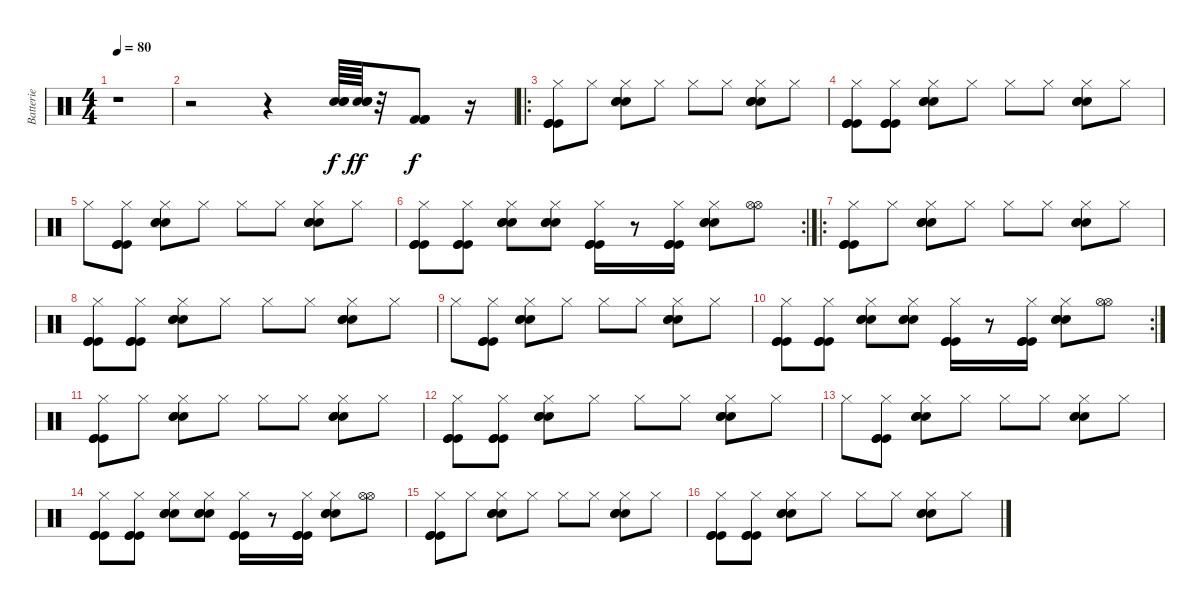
\track ("Batterie" "Batterie") {instrument percussion}
\staff {score}
\articulation defaults
\ts (4 4)
\tempo 80
\clef neutral
\ks c
r.1{dy f} |
r.2 r.4 ("Snare (hit) 2" "Snare (hit) 2" "Snare (hit) 2").64 ("Snare (hit) 2" "Snare (hit) 2" "Snare (hit) 2").64{dy ff} r.32 ("Kick (hit) 2" "Kick (hit) 2" "Kick (hit) 2").8{dy f} r.16 |
\ro
("Hi-Hat (closed)" "Kick (hit)" "Kick (hit)" "Kick (hit)").8 "Hi-Hat (closed)".8 ("Hi-Hat (closed)" "Snare (hit) 2" "Snare (hit) 2" "Snare (hit) 2").8 "Hi-Hat (closed)".8 "Hi-Hat (closed)".8 "Hi-Hat (closed)".8 ("Hi-Hat (closed)" "Snare (hit) 2" "Snare (hit) 2" "Snare (hit) 2").8 "Hi-Hat (closed)".8 |
("Hi-Hat (closed)" "Kick (hit)" "Kick (hit)" "Kick (hit)").8 ("Hi-Hat (closed)" "Kick (hit)" "Kick (hit)" "Kick (hit)").8 ("Hi-Hat (closed)" "Snare (hit) 2" "Snare (hit) 2" "Snare (hit) 2").8 "Hi-Hat (closed)".8 "Hi-Hat (closed)".8 "Hi-Hat (closed)".8 ("Hi-Hat (closed)" "Snare (hit) 2" "Snare (hit) 2" "Snare (hit) 2").8 "Hi-Hat (closed)".8 |
"Hi-Hat (closed)".8 ("Hi-Hat (closed)" "Kick (hit)" "Kick (hit)" "Kick (hit)").8 ("Hi-Hat (closed)" "Snare (hit) 2" "Snare (hit) 2" "Snare (hit) 2").8 "Hi-Hat (closed)".8 "Hi-Hat (closed)".8 "Hi-Hat (closed)".8 ("Hi-Hat (closed)" "Snare (hit) 2" "Snare (hit) 2" "Snare (hit) 2").8 "Hi-Hat (closed)".8 |
\rc 2
("Hi-Hat (closed)" "Kick (hit)" "Kick (hit)" "Kick (hit)").8 ("Hi-Hat (closed)" "Kick (hit)" "Kick (hit)" "Kick (hit)").8 ("Hi-Hat (closed)" "Snare (hit) 2" "Snare (hit) 2" "Snare (hit) 2").8 ("Hi-Hat (closed)" "Snare (hit) 2" "Snare (hit) 2" "Snare (hit) 2").8 ("Hi-Hat (closed)" "Kick (hit)" "Kick (hit)" "Kick (hit)").16 r.8 ("Hi-Hat (closed)" "Kick (hit)" "Kick (hit)" "Kick (hit)").16 ("Hi-Hat (closed)" "Snare (hit) 2" "Snare (hit) 2" "Snare (hit) 2").8 ("Hi-Hat (open)" "Hi-Hat (open)").8 |
\ro
("Hi-Hat (closed)" "Kick (hit)" "Kick (hit)" "Kick (hit)").8 "Hi-Hat (closed)".8 ("Hi-Hat (closed)" "Snare (hit) 2" "Snare (hit) 2" "Snare (hit) 2").8 "Hi-Hat (closed)".8 "Hi-Hat (closed)".8 "Hi-Hat (closed)".8 ("Hi-Hat (closed)" "Snare (hit) 2" "Snare (hit) 2" "Snare (hit) 2").8 "Hi-Hat (closed)".8 |
("Hi-Hat (closed)" "Kick (hit)" "Kick (hit)" "Kick (hit)").8 ("Hi-Hat (closed)" "Kick (hit)" "Kick (hit)" "Kick (hit)").8 ("Hi-Hat (closed)" "Snare (hit) 2" "Snare (hit) 2" "Snare (hit) 2").8 "Hi-Hat (closed)".8 "Hi-Hat (closed)".8 "Hi-Hat (closed)".8 ("Hi-Hat (closed)" "Snare (hit) 2" "Snare (hit) 2" "Snare (hit) 2").8 "Hi-Hat (closed)".8 |
"Hi-Hat (closed)".8 ("Hi-Hat (closed)" "Kick (hit)" "Kick (hit)" "Kick (hit)").8 ("Hi-Hat (closed)" "Snare (hit) 2" "Snare (hit) 2" "Snare (hit) 2").8 "Hi-Hat (closed)".8 "Hi-Hat (closed)".8 "Hi-Hat (closed)".8 ("Hi-Hat (closed)" "Snare (hit) 2" "Snare (hit) 2" "Snare (hit) 2").8 "Hi-Hat (closed)".8 |
\rc 2
("Hi-Hat (closed)" "Kick (hit)" "Kick (hit)" "Kick (hit)").8 ("Hi-Hat (closed)" "Kick (hit)" "Kick (hit)" "Kick (hit)").8 ("Hi-Hat (closed)" "Snare (hit) 2" "Snare (hit) 2" "Snare (hit) 2").8 ("Hi-Hat (closed)" "Snare (hit) 2" "Snare (hit) 2" "Snare (hit) 2").8 ("Hi-Hat (closed)" "Kick (hit)" "Kick (hit)" "Kick (hit)").16 r.8 ("Hi-Hat (closed)" "Kick (hit)" "Kick (hit)" "Kick (hit)").16 ("Hi-Hat (closed)" "Snare (hit) 2" "Snare (hit) 2" "Snare (hit) 2").8 ("Hi-Hat (open)" "Hi-Hat (open)").8 |
("Hi-Hat (closed)" "Kick (hit)" "Kick (hit)" "Kick (hit)").8 "Hi-Hat (closed)".8 ("Hi-Hat (closed)" "Snare (hit) 2" "Snare (hit) 2" "Snare (hit) 2").8 "Hi-Hat (closed)".8 "Hi-Hat (closed)".8 "Hi-Hat (closed)".8 ("Hi-Hat (closed)" "Snare (hit) 2" "Snare (hit) 2" "Snare (hit) 2").8 "Hi-Hat (closed)".8 |
("Hi-Hat (closed)" "Kick (hit)" "Kick (hit)" "Kick (hit)").8 ("Hi-Hat (closed)" "Kick (hit)" "Kick (hit)" "Kick (hit)").8 ("Hi-Hat (closed)" "Snare (hit) 2" "Snare (hit) 2" "Snare (hit) 2").8 "Hi-Hat (closed)".8 "Hi-Hat (closed)".8 "Hi-Hat (closed)".8 ("Hi-Hat (closed)" "Snare (hit) 2" "Snare (hit) 2" "Snare (hit) 2").8 "Hi-Hat (closed)".8 |
"Hi-Hat (closed)".8 ("Hi-Hat (closed)" "Kick (hit)" "Kick (hit)" "Kick (hit)").8 ("Hi-Hat (closed)" "Snare (hit) 2" "Snare (hit) 2" "Snare (hit) 2").8 "Hi-Hat (closed)".8 "Hi-Hat (closed)".8 "Hi-Hat (closed)".8 ("Hi-Hat (closed)" "Snare (hit) 2" "Snare (hit) 2" "Snare (hit) 2").8 "Hi-Hat (closed)".8 |
("Hi-Hat (closed)" "Kick (hit)" "Kick (hit)" "Kick (hit)").8 ("Hi-Hat (closed)" "Kick (hit)" "Kick (hit)" "Kick (hit)").8 ("Hi-Hat (closed)" "Snare (hit) 2" "Snare (hit) 2" "Snare (hit) 2").8 ("Hi-Hat (closed)" "Snare (hit) 2" "Snare (hit) 2" "Snare (hit) 2").8 ("Hi-Hat (closed)" "Kick (hit)" "Kick (hit)" "Kick (hit)").16 r.8 ("Hi-Hat (closed)" "Kick (hit)" "Kick (hit)" "Kick (hit)").16 ("Hi-Hat (closed)" "Snare (hit) 2" "Snare (hit) 2" "Snare (hit) 2").8 ("Hi-Hat (open)" "Hi-Hat (open)").8 |
("Hi-Hat (closed)" "Kick (hit)" "Kick (hit)" "Kick (hit)").8 "Hi-Hat (closed)".8 ("Hi-Hat (closed)" "Snare (hit) 2" "Snare (hit) 2" "Snare (hit) 2").8 "Hi-Hat (closed)".8 "Hi-Hat (closed)".8 "Hi-Hat (closed)".8 ("Hi-Hat (closed)" "Snare (hit) 2" "Snare (hit) 2" "Snare (hit) 2").8 "Hi-Hat (closed)".8 |
("Hi-Hat (closed)" "Kick (hit)" "Kick (hit)" "Kick (hit)").8 ("Hi-Hat (closed)" "Kick (hit)" "Kick (hit)" "Kick (hit)").8 ("Hi-Hat (closed)" "Snare (hit) 2" "Snare (hit) 2" "Snare (hit) 2").8 "Hi-Hat (closed)".8 "Hi-Hat (closed)".8 "Hi-Hat (closed)".8 ("Hi-Hat (closed)" "Snare (hit) 2" "Snare (hit) 2" "Snare (hit) 2").8 "Hi-Hat (closed)".8
